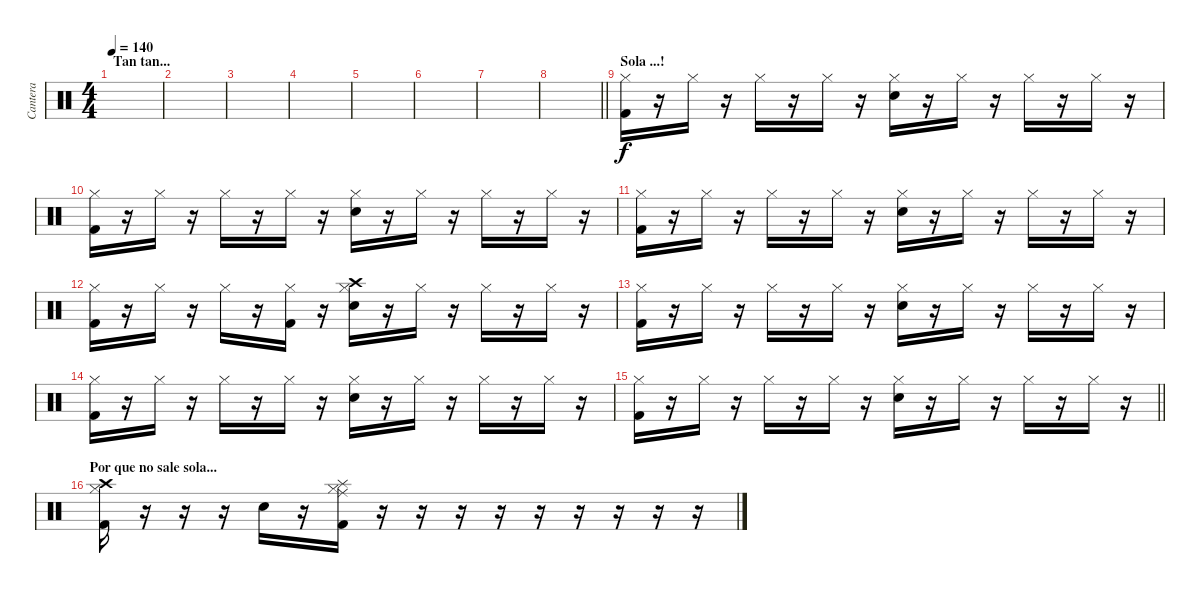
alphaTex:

\track ("Cantera" "Cantera") {instrument percussion}
\staff {score}
\articulation defaults
\ts (4 4)
\section ("" "Tan tan...")
\tempo 140
\clef neutral
\ks c
|
|
|
|
|
|
|
\barLineRight lightlight
|
\section ("" "Sola ...!")
("Hi-Hat (closed)" "Kick (hit) 2").16 r.16 "Hi-Hat (closed)".16 r.16 "Hi-Hat (closed)".16 r.16 "Hi-Hat (closed)".16 r.16 ("Hi-Hat (closed)" "Snare (hit) 2").16 r.16 "Hi-Hat (closed)".16 r.16 "Hi-Hat (closed)".16 r.16 "Hi-Hat (closed)".16 r.16 |
("Hi-Hat (closed)" "Kick (hit) 2").16 r.16 "Hi-Hat (closed)".16 r.16 "Hi-Hat (closed)".16 r.16 "Hi-Hat (closed)".16 r.16 ("Hi-Hat (closed)" "Snare (hit) 2").16 r.16 "Hi-Hat (closed)".16 r.16 "Hi-Hat (closed)".16 r.16 "Hi-Hat (closed)".16 r.16 |
("Hi-Hat (closed)" "Kick (hit) 2").16 r.16 "Hi-Hat (closed)".16 r.16 "Hi-Hat (closed)".16 r.16 "Hi-Hat (closed)".16 r.16 ("Hi-Hat (closed)" "Snare (hit) 2").16 r.16 "Hi-Hat (closed)".16 r.16 "Hi-Hat (closed)".16 r.16 "Hi-Hat (closed)".16 r.16 |
("Hi-Hat (closed)" "Kick (hit) 2").16 r.16 "Hi-Hat (closed)".16 r.16 "Hi-Hat (closed)".16 r.16 ("Hi-Hat (closed)" "Kick (hit) 2").16 r.16 ("Crash high (hit)" "Hi-Hat (closed)" "Snare (hit) 2").16 r.16 "Hi-Hat (closed)".16 r.16 "Hi-Hat (closed)".16 r.16 "Hi-Hat (closed)".16 r.16 |
("Hi-Hat (closed)" "Kick (hit) 2").16 r.16 "Hi-Hat (closed)".16 r.16 "Hi-Hat (closed)".16 r.16 "Hi-Hat (closed)".16 r.16 ("Hi-Hat (closed)" "Snare (hit) 2").16 r.16 "Hi-Hat (closed)".16 r.16 "Hi-Hat (closed)".16 r.16 "Hi-Hat (closed)".16 r.16 |
("Hi-Hat (closed)" "Kick (hit) 2").16 r.16 "Hi-Hat (closed)".16 r.16 "Hi-Hat (closed)".16 r.16 "Hi-Hat (closed)".16 r.16 ("Hi-Hat (closed)" "Snare (hit) 2").16 r.16 "Hi-Hat (closed)".16 r.16 "Hi-Hat (closed)".16 r.16 "Hi-Hat (closed)".16 r.16 |
\barLineRight lightlight
("Hi-Hat (closed)" "Kick (hit) 2").16 r.16 "Hi-Hat (closed)".16 r.16 "Hi-Hat (closed)".16 r.16 "Hi-Hat (closed)".16 r.16 ("Hi-Hat (closed)" "Snare (hit) 2").16 r.16 "Hi-Hat (closed)".16 r.16 "Hi-Hat (closed)".16 r.16 "Hi-Hat (closed)".16 r.16 |
\section ("" "Por que no sale sola...")
("Crash high (hit)" "Hi-Hat (closed)" "Kick (hit) 2").16 r.16 r.16 r.16 "Snare (hit) 2".16 r.16 ("Splash (hit)" "Hi-Hat (closed)" "Ride (middle)" "Kick (hit) 2").16 r.16 r.16 r.16 r.16 r.16 r.16 r.16 r.16 r.16
